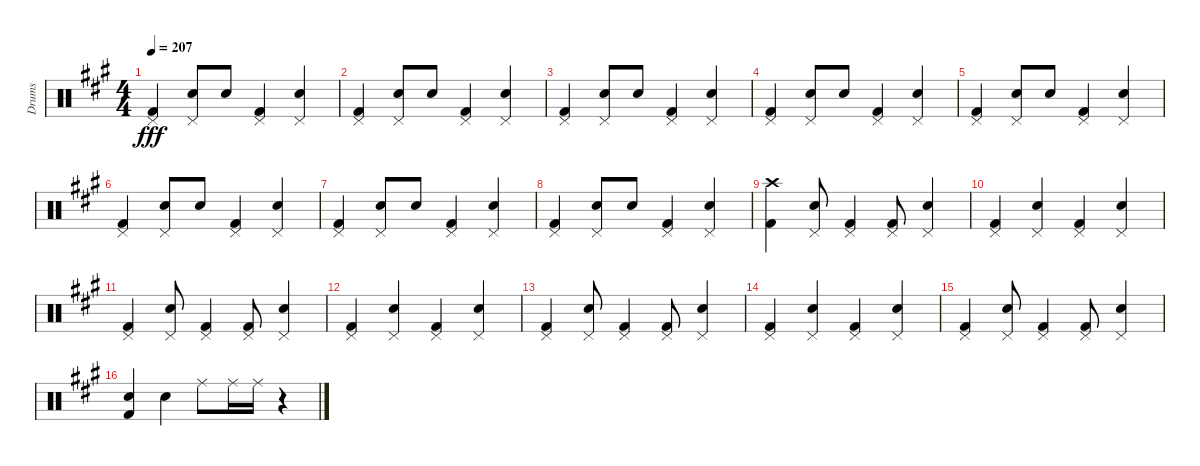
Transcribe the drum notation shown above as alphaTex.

\track ("Drums" "Drums") {instrument percussion}
\staff {score}
\articulation defaults
\ts (4 4)
\tempo 207
\clef neutral
\ks a
("Pedal Hi-Hat (hit)" "Kick (hit) 2").4{dy fff} ("Pedal Hi-Hat (hit)" "Snare (hit) 2").8 "Snare (hit) 2".8 ("Pedal Hi-Hat (hit)" "Kick (hit) 2").4 ("Pedal Hi-Hat (hit)" "Snare (hit) 2").4 |
("Pedal Hi-Hat (hit)" "Kick (hit) 2").4 ("Pedal Hi-Hat (hit)" "Snare (hit) 2").8 "Snare (hit) 2".8 ("Pedal Hi-Hat (hit)" "Kick (hit) 2").4 ("Pedal Hi-Hat (hit)" "Snare (hit) 2").4 |
("Pedal Hi-Hat (hit)" "Kick (hit) 2").4 ("Pedal Hi-Hat (hit)" "Snare (hit) 2").8 "Snare (hit) 2".8 ("Pedal Hi-Hat (hit)" "Kick (hit) 2").4 ("Pedal Hi-Hat (hit)" "Snare (hit) 2").4 |
("Pedal Hi-Hat (hit)" "Kick (hit) 2").4 ("Pedal Hi-Hat (hit)" "Snare (hit) 2").8 "Snare (hit) 2".8 ("Pedal Hi-Hat (hit)" "Kick (hit) 2").4 ("Pedal Hi-Hat (hit)" "Snare (hit) 2").4 |
("Pedal Hi-Hat (hit)" "Kick (hit) 2").4 ("Pedal Hi-Hat (hit)" "Snare (hit) 2").8 "Snare (hit) 2".8 ("Pedal Hi-Hat (hit)" "Kick (hit) 2").4 ("Pedal Hi-Hat (hit)" "Snare (hit) 2").4 |
("Pedal Hi-Hat (hit)" "Kick (hit) 2").4 ("Pedal Hi-Hat (hit)" "Snare (hit) 2").8 "Snare (hit) 2".8 ("Pedal Hi-Hat (hit)" "Kick (hit) 2").4 ("Pedal Hi-Hat (hit)" "Snare (hit) 2").4 |
("Pedal Hi-Hat (hit)" "Kick (hit) 2").4 ("Pedal Hi-Hat (hit)" "Snare (hit) 2").8 "Snare (hit) 2".8 ("Pedal Hi-Hat (hit)" "Kick (hit) 2").4 ("Pedal Hi-Hat (hit)" "Snare (hit) 2").4 |
("Pedal Hi-Hat (hit)" "Kick (hit) 2").4 ("Pedal Hi-Hat (hit)" "Snare (hit) 2").8 "Snare (hit) 2".8 ("Pedal Hi-Hat (hit)" "Kick (hit) 2").4 ("Pedal Hi-Hat (hit)" "Snare (hit) 2").4 |
("Crash high (hit)" "Kick (hit) 2").4 ("Pedal Hi-Hat (hit)" "Snare (hit) 2").8 ("Pedal Hi-Hat (hit)" "Kick (hit) 2").4 ("Pedal Hi-Hat (hit)" "Kick (hit) 2").8 ("Pedal Hi-Hat (hit)" "Snare (hit) 2").4 |
("Pedal Hi-Hat (hit)" "Kick (hit) 2").4 ("Pedal Hi-Hat (hit)" "Snare (hit) 2").4 ("Pedal Hi-Hat (hit)" "Kick (hit) 2").4 ("Pedal Hi-Hat (hit)" "Snare (hit) 2").4 |
("Pedal Hi-Hat (hit)" "Kick (hit) 2").4 ("Pedal Hi-Hat (hit)" "Snare (hit) 2").8 ("Pedal Hi-Hat (hit)" "Kick (hit) 2").4 ("Pedal Hi-Hat (hit)" "Kick (hit) 2").8 ("Pedal Hi-Hat (hit)" "Snare (hit) 2").4 |
("Pedal Hi-Hat (hit)" "Kick (hit) 2").4 ("Pedal Hi-Hat (hit)" "Snare (hit) 2").4 ("Pedal Hi-Hat (hit)" "Kick (hit) 2").4 ("Pedal Hi-Hat (hit)" "Snare (hit) 2").4 |
("Pedal Hi-Hat (hit)" "Kick (hit) 2").4 ("Pedal Hi-Hat (hit)" "Snare (hit) 2").8 ("Pedal Hi-Hat (hit)" "Kick (hit) 2").4 ("Pedal Hi-Hat (hit)" "Kick (hit) 2").8 ("Pedal Hi-Hat (hit)" "Snare (hit) 2").4 |
("Pedal Hi-Hat (hit)" "Kick (hit) 2").4 ("Pedal Hi-Hat (hit)" "Snare (hit) 2").4 ("Pedal Hi-Hat (hit)" "Kick (hit) 2").4 ("Pedal Hi-Hat (hit)" "Snare (hit) 2").4 |
("Pedal Hi-Hat (hit)" "Kick (hit) 2").4 ("Pedal Hi-Hat (hit)" "Snare (hit) 2").8 ("Pedal Hi-Hat (hit)" "Kick (hit) 2").4 ("Pedal Hi-Hat (hit)" "Kick (hit) 2").8 ("Pedal Hi-Hat (hit)" "Snare (hit) 2").4 |
("Snare (hit) 2" "Kick (hit) 2").4 "Snare (hit) 2".4 "Ride (middle)".8 "Ride (middle)".16 "Ride (middle)".16 r.4
